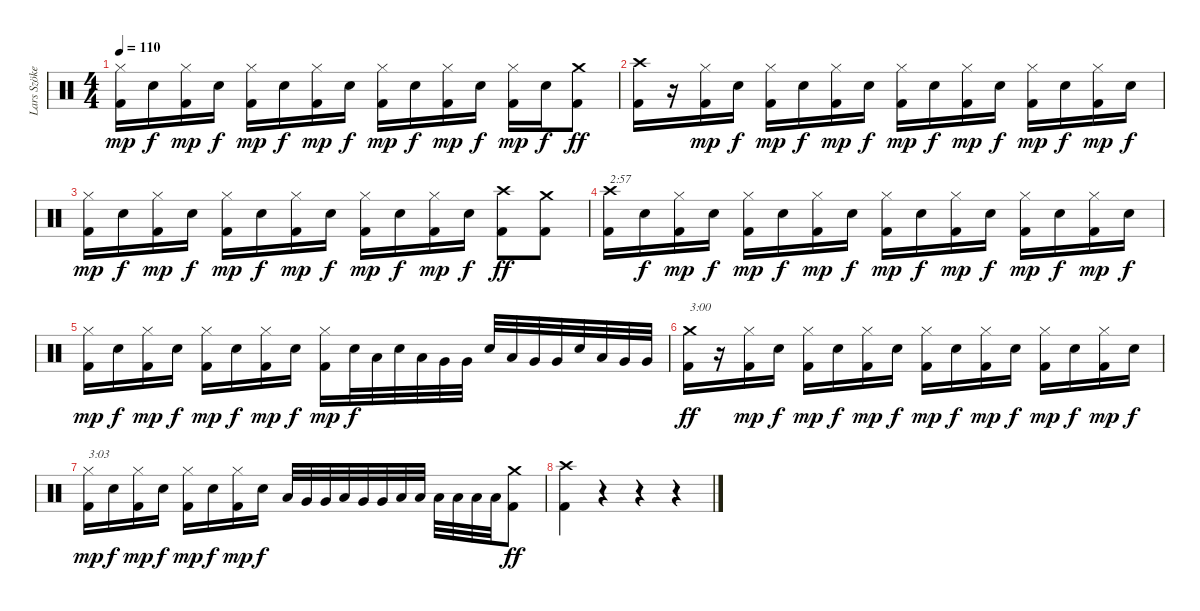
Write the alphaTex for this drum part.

\track ("Lars Szöke (Drums)" "Lars Szöke") {instrument percussion}
\staff {score}
\articulation defaults
\ts (4 4)
\tempo 110
\clef neutral
\ks c
("Kick (hit) 2" "Hi-Hat (closed)").16{dy mp} "Electric Snare (hit)".16{dy f} ("Kick (hit) 2" "Hi-Hat (closed)").16{dy mp} "Electric Snare (hit)".16{dy f} ("Kick (hit) 2" "Hi-Hat (closed)").16{dy mp} "Electric Snare (hit)".16{dy f} ("Kick (hit) 2" "Hi-Hat (closed)").16{dy mp} "Electric Snare (hit)".16{dy f} ("Kick (hit) 2" "Hi-Hat (closed)").16{dy mp} "Electric Snare (hit)".16{dy f} ("Kick (hit) 2" "Hi-Hat (closed)").16{dy mp} "Electric Snare (hit)".16{dy f} ("Kick (hit) 2" "Hi-Hat (closed)").16{dy mp} "Electric Snare (hit)".16{dy f} ("Kick (hit) 2" "Crash medium (hit)").8{dy ff} |
("Kick (hit) 2" "Crash high (hit)").16 r.16 ("Kick (hit) 2" "Hi-Hat (closed)").16{dy mp} "Electric Snare (hit)".16{dy f} ("Kick (hit) 2" "Hi-Hat (closed)").16{dy mp} "Electric Snare (hit)".16{dy f} ("Kick (hit) 2" "Hi-Hat (closed)").16{dy mp} "Electric Snare (hit)".16{dy f} ("Kick (hit) 2" "Hi-Hat (closed)").16{dy mp} "Electric Snare (hit)".16{dy f} ("Kick (hit) 2" "Hi-Hat (closed)").16{dy mp} "Electric Snare (hit)".16{dy f} ("Kick (hit) 2" "Hi-Hat (closed)").16{dy mp} "Electric Snare (hit)".16{dy f} ("Kick (hit) 2" "Hi-Hat (closed)").16{dy mp} "Electric Snare (hit)".16{dy f} |
("Kick (hit) 2" "Hi-Hat (closed)").16{dy mp} "Electric Snare (hit)".16{dy f} ("Kick (hit) 2" "Hi-Hat (closed)").16{dy mp} "Electric Snare (hit)".16{dy f} ("Kick (hit) 2" "Hi-Hat (closed)").16{dy mp} "Electric Snare (hit)".16{dy f} ("Kick (hit) 2" "Hi-Hat (closed)").16{dy mp} "Electric Snare (hit)".16{dy f} ("Kick (hit) 2" "Hi-Hat (closed)").16{dy mp} "Electric Snare (hit)".16{dy f} ("Kick (hit) 2" "Hi-Hat (closed)").16{dy mp} "Electric Snare (hit)".16{dy f} ("Kick (hit) 2" "Crash high (hit)").8{dy ff} ("Kick (hit) 2" "Crash medium (hit)").8 |
("Kick (hit) 2" "Crash high (hit)").16{txt "2:57"} "Electric Snare (hit)".16{dy f} ("Kick (hit) 2" "Hi-Hat (closed)").16{dy mp} "Electric Snare (hit)".16{dy f} ("Kick (hit) 2" "Hi-Hat (closed)").16{dy mp} "Electric Snare (hit)".16{dy f} ("Kick (hit) 2" "Hi-Hat (closed)").16{dy mp} "Electric Snare (hit)".16{dy f} ("Kick (hit) 2" "Hi-Hat (closed)").16{dy mp} "Electric Snare (hit)".16{dy f} ("Kick (hit) 2" "Hi-Hat (closed)").16{dy mp} "Electric Snare (hit)".16{dy f} ("Kick (hit) 2" "Hi-Hat (closed)").16{dy mp} "Electric Snare (hit)".16{dy f} ("Kick (hit) 2" "Hi-Hat (closed)").16{dy mp} "Electric Snare (hit)".16{dy f} |
("Kick (hit) 2" "Hi-Hat (closed)").16{dy mp} "Electric Snare (hit)".16{dy f} ("Kick (hit) 2" "Hi-Hat (closed)").16{dy mp} "Electric Snare (hit)".16{dy f} ("Kick (hit) 2" "Hi-Hat (closed)").16{dy mp} "Electric Snare (hit)".16{dy f} ("Kick (hit) 2" "Hi-Hat (closed)").16{dy mp} "Electric Snare (hit)".16{dy f} ("Kick (hit) 2" "Hi-Hat (closed)").16{dy mp} "Electric Snare (hit)".32{dy f} "Low Tom (hit)".32 "Electric Snare (hit)".32 "Low Tom (hit)".32 "Very Low Tom (hit)".32 "Very Low Tom (hit)".32 "Electric Snare (hit)".32 "Low Tom (hit)".32 "Very Low Tom (hit)".32 "Very Low Tom (hit)".32 "Electric Snare (hit)".32 "Low Tom (hit)".32 "Very Low Tom (hit)".32 "Very Low Tom (hit)".32 |
("Kick (hit) 2" "Crash medium (hit)").16{txt "3:00" dy ff} r.16 ("Kick (hit) 2" "Hi-Hat (closed)").16{dy mp} "Electric Snare (hit)".16{dy f} ("Kick (hit) 2" "Hi-Hat (closed)").16{dy mp} "Electric Snare (hit)".16{dy f} ("Kick (hit) 2" "Hi-Hat (closed)").16{dy mp} "Electric Snare (hit)".16{dy f} ("Kick (hit) 2" "Hi-Hat (closed)").16{dy mp} "Electric Snare (hit)".16{dy f} ("Kick (hit) 2" "Hi-Hat (closed)").16{dy mp} "Electric Snare (hit)".16{dy f} ("Kick (hit) 2" "Hi-Hat (closed)").16{dy mp} "Electric Snare (hit)".16{dy f} ("Kick (hit) 2" "Hi-Hat (closed)").16{dy mp} "Electric Snare (hit)".16{dy f} |
("Kick (hit) 2" "Hi-Hat (closed)").16{txt "3:03" dy mp} "Electric Snare (hit)".16{dy f} ("Kick (hit) 2" "Hi-Hat (closed)").16{dy mp} "Electric Snare (hit)".16{dy f} ("Kick (hit) 2" "Hi-Hat (closed)").16{dy mp} "Electric Snare (hit)".16{dy f} ("Kick (hit) 2" "Hi-Hat (closed)").16{dy mp} "Electric Snare (hit)".16{dy f} "Low Tom (hit)".32 "Very Low Tom (hit)".32 "Very Low Tom (hit)".32 "Low Tom (hit)".32 "Very Low Tom (hit)".32 "Very Low Tom (hit)".32 "Low Tom (hit)".32 "Low Floor Tom (hit)".32 "Low Floor Tom (hit)".32 "Low Floor Tom (hit)".32 "Low Floor Tom (hit)".32 "Low Floor Tom (hit)".32 ("Kick (hit) 2" "Crash medium (hit)").8{dy ff} |
("Kick (hit) 2" "Crash high (hit)").4 r.4 r.4 r.4
